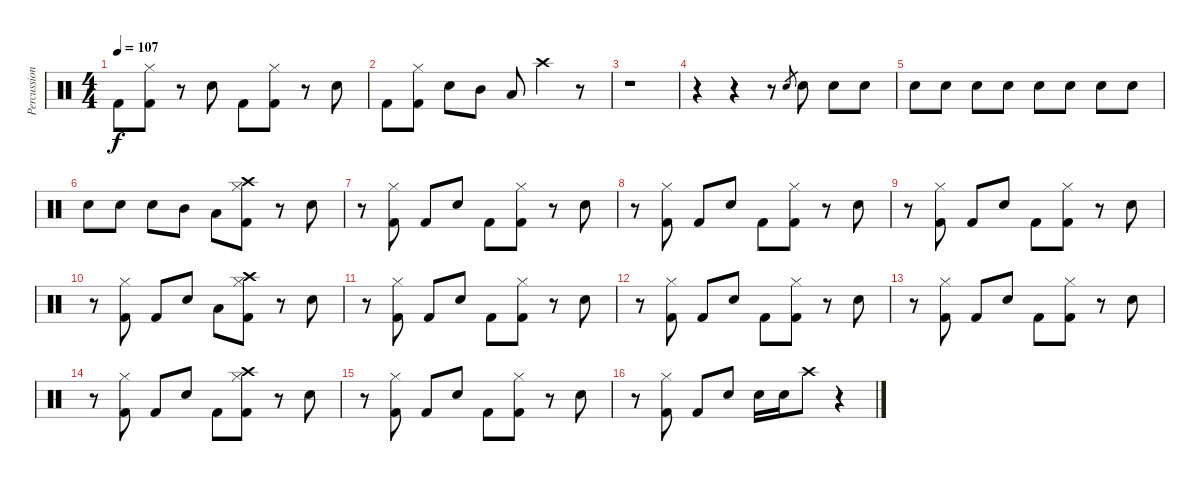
\track ("Percussion" "Percussion") {instrument percussion}
\staff {score}
\articulation defaults
\ts (4 4)
\tempo 107
\clef neutral
\ks c "Kick (hit) 2".8{dy f}
("Hi-Hat (closed)" "Kick (hit) 2").8 r.8 "Electric Snare (hit)".8 "Kick (hit) 2".8 ("Hi-Hat (closed)" "Kick (hit) 2").8 r.8 "Electric Snare (hit)".8 |
"Kick (hit) 2".8 ("Hi-Hat (closed)" "Kick (hit) 2").8 "Electric Snare (hit)".8 "Mid Tom (hit)".8 "Low Tom (hit)".8 "Crash high (hit)".4 r.8 |
r.1 |
r.4 r.4 r.8 "Electric Snare (hit)".8{gr} "Electric Snare (hit)".8 "Electric Snare (hit)".8 "Electric Snare (hit)".8 |
"Electric Snare (hit)".8 "Electric Snare (hit)".8 "Electric Snare (hit)".8 "Electric Snare (hit)".8 "Electric Snare (hit)".8 "Electric Snare (hit)".8 "Electric Snare (hit)".8 "Electric Snare (hit)".8 |
"Electric Snare (hit)".8 "Electric Snare (hit)".8 "Electric Snare (hit)".8 "Mid Tom (hit)".8 "Low Tom (hit)".8 ("Crash high (hit)" "Hi-Hat (closed)" "Kick (hit) 2").8 r.8 "Electric Snare (hit)".8 |
r.8 ("Hi-Hat (closed)" "Kick (hit) 2").8 "Kick (hit) 2".8 "Electric Snare (hit)".8 "Kick (hit) 2".8 ("Hi-Hat (closed)" "Kick (hit) 2").8 r.8 "Electric Snare (hit)".8 |
r.8 ("Hi-Hat (closed)" "Kick (hit) 2").8 "Kick (hit) 2".8 "Electric Snare (hit)".8 "Kick (hit) 2".8 ("Hi-Hat (closed)" "Kick (hit) 2").8 r.8 "Electric Snare (hit)".8 |
r.8 ("Hi-Hat (closed)" "Kick (hit) 2").8 "Kick (hit) 2".8 "Electric Snare (hit)".8 "Kick (hit) 2".8 ("Hi-Hat (closed)" "Kick (hit) 2").8 r.8 "Electric Snare (hit)".8 |
r.8 ("Hi-Hat (closed)" "Kick (hit) 2").8 "Kick (hit) 2".8 "Electric Snare (hit)".8 "Low Tom (hit)".8 ("Crash high (hit)" "Hi-Hat (closed)" "Kick (hit) 2").8 r.8 "Electric Snare (hit)".8 |
r.8 ("Hi-Hat (closed)" "Kick (hit) 2").8 "Kick (hit) 2".8 "Electric Snare (hit)".8 "Kick (hit) 2".8 ("Hi-Hat (closed)" "Kick (hit) 2").8 r.8 "Electric Snare (hit)".8 |
r.8 ("Hi-Hat (closed)" "Kick (hit) 2").8 "Kick (hit) 2".8 "Electric Snare (hit)".8 "Kick (hit) 2".8 ("Hi-Hat (closed)" "Kick (hit) 2").8 r.8 "Electric Snare (hit)".8 |
r.8 ("Hi-Hat (closed)" "Kick (hit) 2").8 "Kick (hit) 2".8 "Electric Snare (hit)".8 "Kick (hit) 2".8 ("Hi-Hat (closed)" "Kick (hit) 2").8 r.8 "Electric Snare (hit)".8 |
r.8 ("Hi-Hat (closed)" "Kick (hit) 2").8 "Kick (hit) 2".8 "Electric Snare (hit)".8 "Kick (hit) 2".8 ("Crash high (hit)" "Hi-Hat (closed)" "Kick (hit) 2").8 r.8 "Electric Snare (hit)".8 |
r.8 ("Hi-Hat (closed)" "Kick (hit) 2").8 "Kick (hit) 2".8 "Electric Snare (hit)".8 "Kick (hit) 2".8 ("Hi-Hat (closed)" "Kick (hit) 2").8 r.8 "Electric Snare (hit)".8 |
r.8 ("Hi-Hat (closed)" "Kick (hit) 2").8 "Kick (hit) 2".8 "Electric Snare (hit)".8 "Electric Snare (hit)".16 "Electric Snare (hit)".16 "Crash high (hit)".8 r.4
